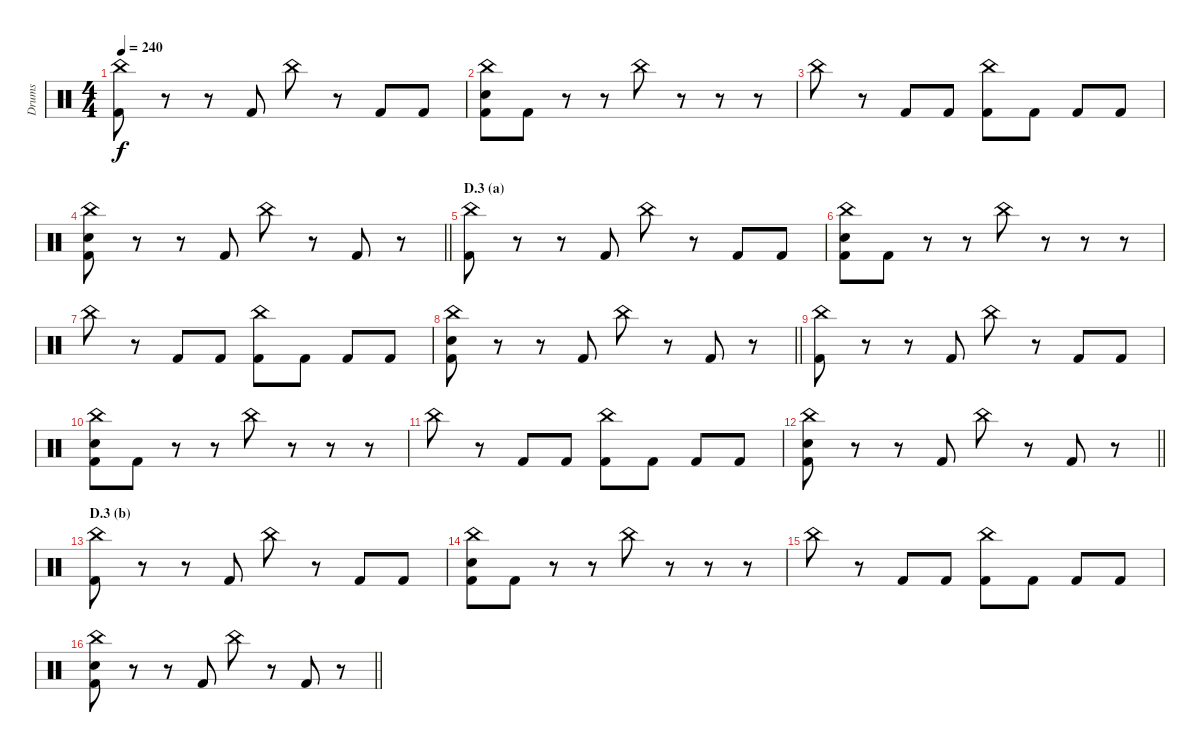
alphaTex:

\track ("Drums" "Drums") {instrument percussion}
\staff {score}
\articulation defaults
\ts (4 4)
\tempo 240
\clef neutral
\ks c
("China (hit)" "Kick (hit) 2").8{dy f} r.8 r.8 "Kick (hit) 2".8 "China (hit)".8 r.8 "Kick (hit) 2".8 "Kick (hit) 2".8 |
("China (hit)" "Electric Snare (hit)" "Kick (hit) 2").8 "Kick (hit) 2".8 r.8 r.8 "China (hit)".8 r.8 r.8 r.8 |
"China (hit)".8 r.8 "Kick (hit) 2".8 "Kick (hit) 2".8 ("China (hit)" "Kick (hit) 2").8 "Kick (hit) 2".8 "Kick (hit) 2".8 "Kick (hit) 2".8 |
\barLineRight lightlight
("China (hit)" "Electric Snare (hit)" "Kick (hit) 2").8 r.8 r.8 "Kick (hit) 2".8 "China (hit)".8 r.8 "Kick (hit) 2".8 r.8 |
\section ("" "D.3 (a)")
("China (hit)" "Kick (hit) 2").8 r.8 r.8 "Kick (hit) 2".8 "China (hit)".8 r.8 "Kick (hit) 2".8 "Kick (hit) 2".8 |
("China (hit)" "Electric Snare (hit)" "Kick (hit) 2").8 "Kick (hit) 2".8 r.8 r.8 "China (hit)".8 r.8 r.8 r.8 |
"China (hit)".8 r.8 "Kick (hit) 2".8 "Kick (hit) 2".8 ("China (hit)" "Kick (hit) 2").8 "Kick (hit) 2".8 "Kick (hit) 2".8 "Kick (hit) 2".8 |
\barLineRight lightlight
("China (hit)" "Electric Snare (hit)" "Kick (hit) 2").8 r.8 r.8 "Kick (hit) 2".8 "China (hit)".8 r.8 "Kick (hit) 2".8 r.8 |
("China (hit)" "Kick (hit) 2").8 r.8 r.8 "Kick (hit) 2".8 "China (hit)".8 r.8 "Kick (hit) 2".8 "Kick (hit) 2".8 |
("China (hit)" "Electric Snare (hit)" "Kick (hit) 2").8 "Kick (hit) 2".8 r.8 r.8 "China (hit)".8 r.8 r.8 r.8 |
"China (hit)".8 r.8 "Kick (hit) 2".8 "Kick (hit) 2".8 ("China (hit)" "Kick (hit) 2").8 "Kick (hit) 2".8 "Kick (hit) 2".8 "Kick (hit) 2".8 |
\barLineRight lightlight
("China (hit)" "Electric Snare (hit)" "Kick (hit) 2").8 r.8 r.8 "Kick (hit) 2".8 "China (hit)".8 r.8 "Kick (hit) 2".8 r.8 |
\section ("" "D.3 (b)")
("China (hit)" "Kick (hit) 2").8 r.8 r.8 "Kick (hit) 2".8 "China (hit)".8 r.8 "Kick (hit) 2".8 "Kick (hit) 2".8 |
("China (hit)" "Electric Snare (hit)" "Kick (hit) 2").8 "Kick (hit) 2".8 r.8 r.8 "China (hit)".8 r.8 r.8 r.8 |
"China (hit)".8 r.8 "Kick (hit) 2".8 "Kick (hit) 2".8 ("China (hit)" "Kick (hit) 2").8 "Kick (hit) 2".8 "Kick (hit) 2".8 "Kick (hit) 2".8 |
\barLineRight lightlight
("China (hit)" "Electric Snare (hit)" "Kick (hit) 2").8 r.8 r.8 "Kick (hit) 2".8 "China (hit)".8 r.8 "Kick (hit) 2".8 r.8
